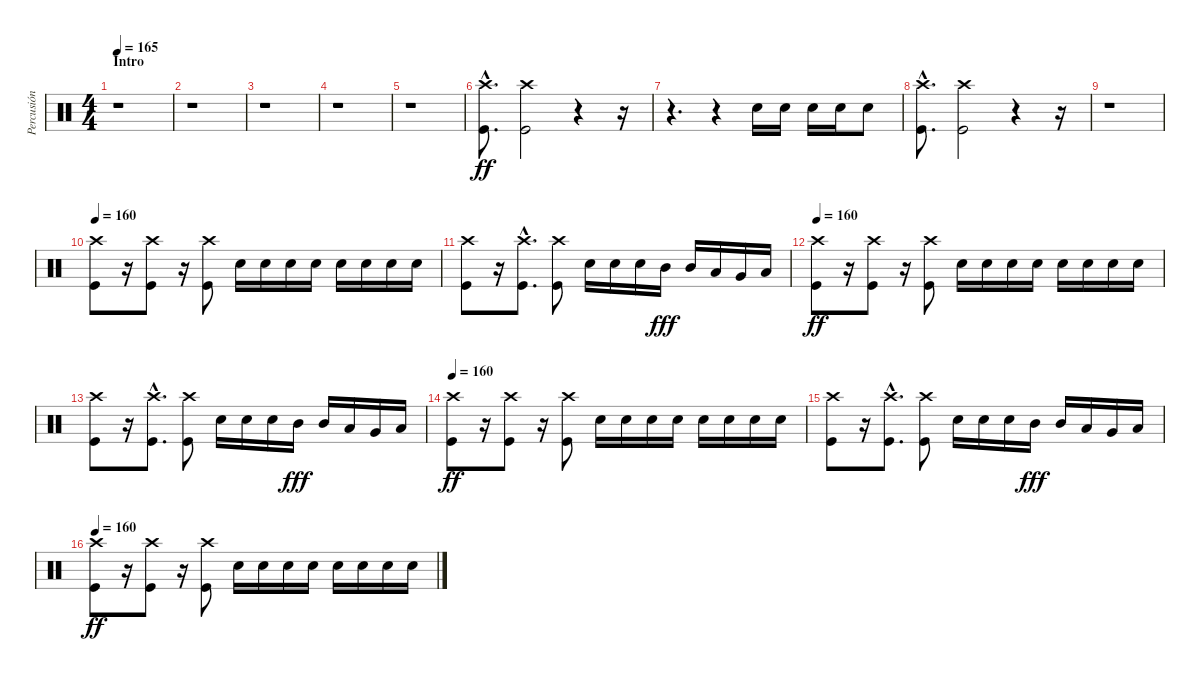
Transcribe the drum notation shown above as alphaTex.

\track ("Percusión" "Percusión") {instrument percussion}
\staff {score}
\articulation defaults
\ts (4 4)
\section ("" "Intro")
\tempo 165
\clef neutral
\ks c
r.1{dy ff} |
r.1 |
r.1 |
r.1 |
r.1 |
("Kick (hit)"{hac} "Crash high (hit)"{hac}).8{d} ("Kick (hit)" "Crash high (hit)").2 r.4 r.16 |
r.4{d} r.4 "Electric Snare (hit)".16 "Electric Snare (hit)".16 "Electric Snare (hit)".16 "Electric Snare (hit)".16 "Electric Snare (hit)".8 |
("Kick (hit)"{hac} "Crash high (hit)"{hac}).8{d} ("Kick (hit)" "Crash high (hit)").2 r.4 r.16 |
r.1 |
\tempo 160
("Kick (hit)" "Crash high (hit)").8 r.16 ("Kick (hit)" "Crash high (hit)").8 r.16 ("Kick (hit)" "Crash high (hit)").8 "Electric Snare (hit)".16 "Electric Snare (hit)".16 "Electric Snare (hit)".16 "Electric Snare (hit)".16 "Electric Snare (hit)".16 "Electric Snare (hit)".16 "Electric Snare (hit)".16 "Electric Snare (hit)".16 |
("Kick (hit)" "Crash high (hit)").8 r.16 ("Kick (hit)"{hac} "Crash high (hit)"{hac}).8{d} ("Kick (hit)" "Crash high (hit)").8 "Electric Snare (hit)".16 "Electric Snare (hit)".16 "Electric Snare (hit)".16 "Mid Tom (hit)".16{dy fff} "Mid Tom (hit)".16 "Low Tom (hit)".16 "Very Low Tom (hit)".16 "Low Floor Tom (hit)".16 |
\tempo 160
("Kick (hit)" "Crash high (hit)").8{dy ff} r.16 ("Kick (hit)" "Crash high (hit)").8 r.16 ("Kick (hit)" "Crash high (hit)").8 "Electric Snare (hit)".16 "Electric Snare (hit)".16 "Electric Snare (hit)".16 "Electric Snare (hit)".16 "Electric Snare (hit)".16 "Electric Snare (hit)".16 "Electric Snare (hit)".16 "Electric Snare (hit)".16 |
("Kick (hit)" "Crash high (hit)").8 r.16 ("Kick (hit)"{hac} "Crash high (hit)"{hac}).8{d} ("Kick (hit)" "Crash high (hit)").8 "Electric Snare (hit)".16 "Electric Snare (hit)".16 "Electric Snare (hit)".16 "Mid Tom (hit)".16{dy fff} "Mid Tom (hit)".16 "Low Tom (hit)".16 "Very Low Tom (hit)".16 "Low Floor Tom (hit)".16 |
\tempo 160
("Kick (hit)" "Crash high (hit)").8{dy ff} r.16 ("Kick (hit)" "Crash high (hit)").8 r.16 ("Kick (hit)" "Crash high (hit)").8 "Electric Snare (hit)".16 "Electric Snare (hit)".16 "Electric Snare (hit)".16 "Electric Snare (hit)".16 "Electric Snare (hit)".16 "Electric Snare (hit)".16 "Electric Snare (hit)".16 "Electric Snare (hit)".16 |
("Kick (hit)" "Crash high (hit)").8 r.16 ("Kick (hit)"{hac} "Crash high (hit)"{hac}).8{d} ("Kick (hit)" "Crash high (hit)").8 "Electric Snare (hit)".16 "Electric Snare (hit)".16 "Electric Snare (hit)".16 "Mid Tom (hit)".16{dy fff} "Mid Tom (hit)".16 "Low Tom (hit)".16 "Very Low Tom (hit)".16 "Low Floor Tom (hit)".16 |
\tempo 160
("Kick (hit)" "Crash high (hit)").8{dy ff} r.16 ("Kick (hit)" "Crash high (hit)").8 r.16 ("Kick (hit)" "Crash high (hit)").8 "Electric Snare (hit)".16 "Electric Snare (hit)".16 "Electric Snare (hit)".16 "Electric Snare (hit)".16 "Electric Snare (hit)".16 "Electric Snare (hit)".16 "Electric Snare (hit)".16 "Electric Snare (hit)".16
